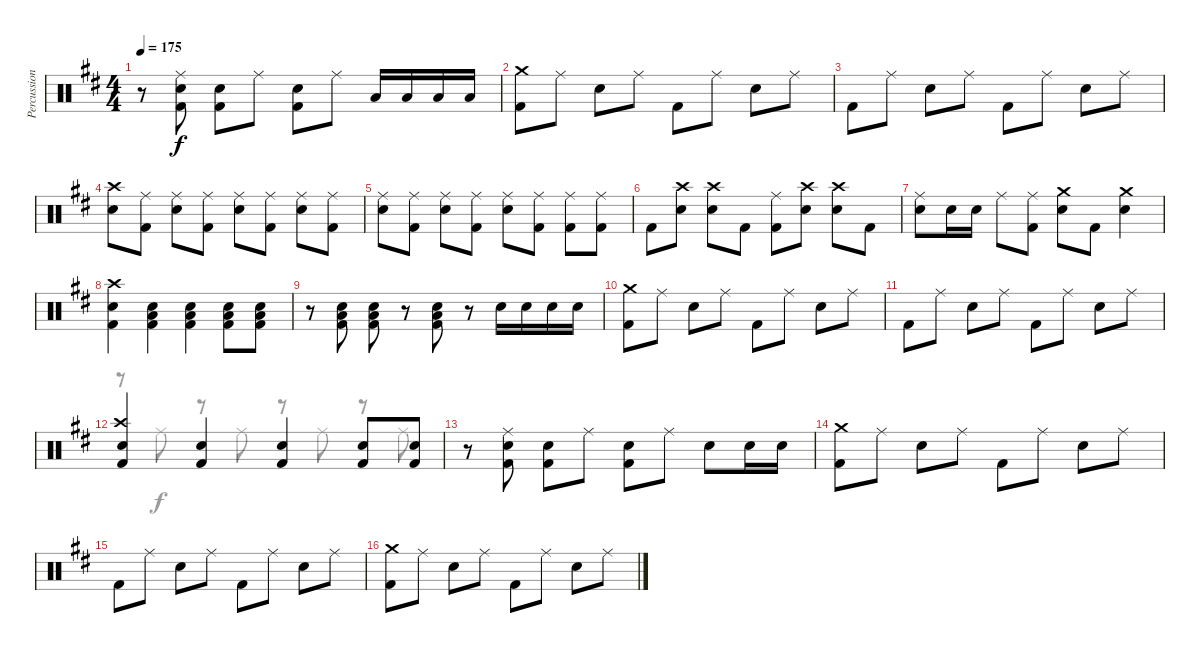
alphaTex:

\track ("Percussion" "Percussion") {instrument percussion}
\staff {score}
\articulation defaults
\voice
\ts (4 4)
\tempo 175
\clef neutral
\ks d
r.8{dy f} ("Ride (middle)" "Electric Snare (hit)" "Kick (hit) 2").8 ("Electric Snare (hit)" "Kick (hit) 2").8 "Ride (middle)".8 ("Electric Snare (hit)" "Kick (hit) 2").8 "Ride (middle)".8 "Low Floor Tom (hit)".16 "Low Floor Tom (hit)".16 "Low Floor Tom (hit)".16 "Low Floor Tom (hit)".16 |
("Crash medium (hit)" "Kick (hit) 2").8 "Ride (middle)".8 "Electric Snare (hit)".8 "Ride (middle)".8 "Kick (hit) 2".8 "Ride (middle)".8 "Electric Snare (hit)".8 "Ride (middle)".8 |
"Kick (hit) 2".8 "Ride (middle)".8 "Electric Snare (hit)".8 "Ride (middle)".8 "Kick (hit) 2".8 "Ride (middle)".8 "Electric Snare (hit)".8 "Ride (middle)".8 |
("Crash high (hit)" "Electric Snare (hit)").8 ("Ride (middle)" "Kick (hit) 2").8 ("Ride (middle)" "Electric Snare (hit)").8 ("Ride (middle)" "Kick (hit) 2").8 ("Ride (middle)" "Electric Snare (hit)").8 ("Ride (middle)" "Kick (hit) 2").8 ("Ride (middle)" "Electric Snare (hit)").8 ("Ride (middle)" "Kick (hit) 2").8 |
("Ride (middle)" "Electric Snare (hit)").8 ("Ride (middle)" "Kick (hit) 2").8 ("Ride (middle)" "Electric Snare (hit)").8 ("Ride (middle)" "Kick (hit) 2").8 ("Ride (middle)" "Electric Snare (hit)").8 ("Ride (middle)" "Kick (hit) 2").8 ("Ride (middle)" "Kick (hit) 2").8 ("Ride (middle)" "Kick (hit) 2").8 |
"Kick (hit) 2".8 ("Crash high (hit)" "Electric Snare (hit)").8 ("Crash high (hit)" "Electric Snare (hit)").8 "Kick (hit) 2".8 ("Ride (middle)" "Kick (hit) 2").8 ("Crash high (hit)" "Electric Snare (hit)").8 ("Crash high (hit)" "Electric Snare (hit)").8 "Kick (hit) 2".8 |
("Ride (middle)" "Electric Snare (hit)").8 "Electric Snare (hit)".16 "Electric Snare (hit)".16 "Ride (middle)".8 ("Ride (middle)" "Kick (hit) 2").8 ("Crash medium (hit)" "Electric Snare (hit)").8 "Kick (hit) 2".8 ("Crash medium (hit)" "Electric Snare (hit)").4 |
("Crash high (hit)" "Electric Snare (hit)" "Kick (hit) 2").4 ("Low Floor Tom (hit)" "Electric Snare (hit)" "Kick (hit) 2").4 ("Low Floor Tom (hit)" "Electric Snare (hit)" "Kick (hit) 2").4 ("Low Floor Tom (hit)" "Electric Snare (hit)" "Kick (hit) 2").8 ("Low Floor Tom (hit)" "Electric Snare (hit)" "Kick (hit) 2").8 |
r.8 ("Low Floor Tom (hit)" "Electric Snare (hit)" "Kick (hit) 2").8 ("Low Floor Tom (hit)" "Electric Snare (hit)" "Kick (hit) 2").8 r.8 ("Low Floor Tom (hit)" "Electric Snare (hit)" "Kick (hit) 2").8 r.8 "Electric Snare (hit)".16 "Electric Snare (hit)".16 "Electric Snare (hit)".16 "Electric Snare (hit)".16 |
("Crash medium (hit)" "Kick (hit) 2").8 "Ride (middle)".8 "Electric Snare (hit)".8 "Ride (middle)".8 "Kick (hit) 2".8 "Ride (middle)".8 "Electric Snare (hit)".8 "Ride (middle)".8 |
"Kick (hit) 2".8 "Ride (middle)".8 "Electric Snare (hit)".8 "Ride (middle)".8 "Kick (hit) 2".8 "Ride (middle)".8 "Electric Snare (hit)".8 "Ride (middle)".8 |
("Crash high (hit)" "Electric Snare (hit)" "Kick (hit) 2").4 ("Electric Snare (hit)" "Kick (hit) 2").4 ("Electric Snare (hit)" "Kick (hit) 2").4 ("Electric Snare (hit)" "Kick (hit) 2").8 ("Electric Snare (hit)" "Kick (hit) 2").8 |
r.8 ("Ride (middle)" "Electric Snare (hit)" "Kick (hit) 2").8 ("Electric Snare (hit)" "Kick (hit) 2").8 "Ride (middle)".8 ("Electric Snare (hit)" "Kick (hit) 2").8 "Ride (middle)".8 "Electric Snare (hit)".8 "Electric Snare (hit)".16 "Electric Snare (hit)".16 |
("Crash medium (hit)" "Kick (hit) 2").8 "Ride (middle)".8 "Electric Snare (hit)".8 "Ride (middle)".8 "Kick (hit) 2".8 "Ride (middle)".8 "Electric Snare (hit)".8 "Ride (middle)".8 |
"Kick (hit) 2".8 "Ride (middle)".8 "Electric Snare (hit)".8 "Ride (middle)".8 "Kick (hit) 2".8 "Ride (middle)".8 "Electric Snare (hit)".8 "Ride (middle)".8 |
("Crash medium (hit)" "Kick (hit) 2").8 "Ride (middle)".8 "Electric Snare (hit)".8 "Ride (middle)".8 "Kick (hit) 2".8 "Ride (middle)".8 "Electric Snare (hit)".8 "Ride (middle)".8
\voice
\clef neutral
\ottava regular
\simile none
\ks d
|
|
|
|
|
|
|
|
|
|
|
r.8 "Ride (middle)".8 r.8 "Ride (middle)".8 r.8 "Ride (middle)".8 r.8 "Ride (middle)".8 |
|
|
|
